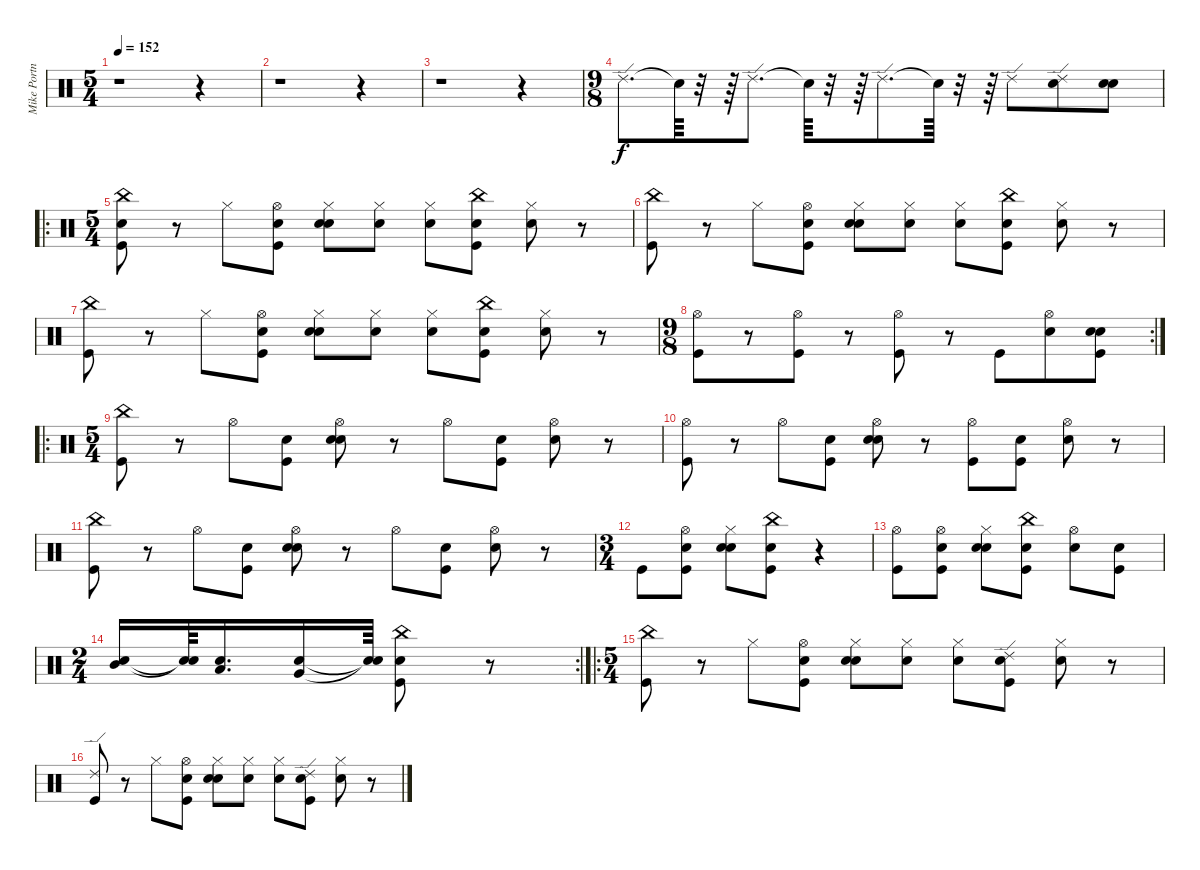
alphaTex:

\track ("Mike Portnoy" "Mike Portn") {instrument percussion}
\staff {score}
\articulation defaults
\ts (5 4)
\tempo 152
\clef neutral
\ks c
r.1{dy f} r.4 |
r.1 r.4 |
r.1 r.4 |
\ts (9 8)
"Ride (edge) 2".8{d} "Snare (hit)"{t}.64 r.32 r.64 "Ride (edge) 2".8{d} "Snare (hit)"{t}.64 r.32 r.64 "Ride (edge) 2".8{d} "Snare (hit)"{t}.64 r.32 r.64 "Ride (edge) 2".8 ("Snare (hit)" "Ride (edge) 2").8 ("Snare (hit)" "Snare (hit) 2").8 |
\ro
\ts (5 4)
("Snare (hit)" "Kick (hit)" "China (hit)").8 r.8 "Hi-Hat (closed)".8 ("Snare (hit)" "Kick (hit)" "Hi-Hat (open)").8 ("Snare (hit)" "Snare (hit) 2" "Hi-Hat (closed)").8 ("Snare (hit)" "Hi-Hat (closed)").8 ("Snare (hit)" "Hi-Hat (closed)").8 ("Snare (hit)" "Kick (hit)" "China (hit)").8 ("Snare (hit)" "Hi-Hat (closed)").8 r.8 |
("Kick (hit)" "China (hit)").8 r.8 "Hi-Hat (closed)".8 ("Snare (hit)" "Kick (hit)" "Hi-Hat (open)").8 ("Snare (hit)" "Snare (hit) 2" "Hi-Hat (closed)").8 ("Snare (hit)" "Hi-Hat (closed)").8 ("Snare (hit)" "Hi-Hat (closed)").8 ("Snare (hit)" "Kick (hit)" "China (hit)").8 ("Snare (hit)" "Hi-Hat (closed)").8 r.8 |
("Kick (hit)" "China (hit)").8 r.8 "Hi-Hat (closed)".8 ("Snare (hit)" "Kick (hit)" "Hi-Hat (open)").8 ("Snare (hit)" "Snare (hit) 2" "Hi-Hat (closed)").8 ("Snare (hit)" "Hi-Hat (closed)").8 ("Snare (hit)" "Hi-Hat (closed)").8 ("Snare (hit)" "Kick (hit)" "China (hit)").8 ("Snare (hit)" "Hi-Hat (closed)").8 r.8 |
\rc 2
\ts (9 8)
("Kick (hit)" "Hi-Hat (open)").8 r.8 ("Kick (hit)" "Hi-Hat (open)").8 r.8 ("Kick (hit)" "Hi-Hat (open)").8 r.8 "Kick (hit)".8 ("Snare (hit)" "Hi-Hat (open)").8 ("Snare (hit)" "Kick (hit)" "Snare (hit) 2").8 |
\ro
\ts (5 4)
("Kick (hit)" "China (hit)").8 r.8 "Hi-Hat (open)".8 ("Snare (hit)" "Kick (hit)").8 ("Snare (hit)" "Snare (hit) 2" "Hi-Hat (open)").8 r.8 "Hi-Hat (open)".8 ("Snare (hit)" "Kick (hit)").8 ("Snare (hit)" "Hi-Hat (open)").8 r.8 |
("Kick (hit)" "Hi-Hat (open)").8 r.8 "Hi-Hat (open)".8 ("Snare (hit)" "Kick (hit)").8 ("Snare (hit)" "Snare (hit) 2" "Hi-Hat (open)").8 r.8 ("Kick (hit)" "Hi-Hat (open)").8 ("Snare (hit)" "Kick (hit)").8 ("Snare (hit)" "Hi-Hat (open)").8 r.8 |
("Kick (hit)" "China (hit)").8 r.8 "Hi-Hat (open)".8 ("Snare (hit)" "Kick (hit)").8 ("Snare (hit)" "Snare (hit) 2" "Hi-Hat (open)").8 r.8 "Hi-Hat (open)".8 ("Snare (hit)" "Kick (hit)").8 ("Snare (hit)" "Hi-Hat (open)").8 r.8 |
\ts (3 4)
"Kick (hit)".8 ("Snare (hit)" "Kick (hit)" "Hi-Hat (open)").8 ("Snare (hit)" "Snare (hit) 2" "Hi-Hat (closed)").8 ("Snare (hit)" "Kick (hit)" "China (hit)").8 r.4 |
("Kick (hit)" "Hi-Hat (open)").8 ("Snare (hit)" "Kick (hit)" "Hi-Hat (open)").8 ("Snare (hit)" "Snare (hit) 2" "Hi-Hat (closed)").8 ("Snare (hit)" "Kick (hit)" "China (hit)").8 ("Snare (hit)" "Hi-Hat (open)").8 ("Snare (hit)" "Kick (hit)").8 |
\rc 2
\ts (2 4)
("Snare (hit)" "Mid Tom (hit)").16 ("Snare (hit)"{t} "Snare (hit)"{t}).64 ("Snare (hit)" "Low Tom (hit)").16{d} ("Snare (hit)" "Very Low Tom (hit)").16 ("Snare (hit)"{t} "Snare (hit)"{t}).64 ("Snare (hit)" "Kick (hit)" "China (hit)").8 r.8 |
\ro
\ts (5 4)
("Kick (hit)" "China (hit)").8 r.8 "Hi-Hat (closed)".8 ("Snare (hit)" "Kick (hit)" "Hi-Hat (open)").8 ("Snare (hit)" "Snare (hit) 2" "Hi-Hat (closed)").8 ("Snare (hit)" "Hi-Hat (closed)").8 ("Snare (hit)" "Hi-Hat (closed)").8 ("Snare (hit)" "Kick (hit)" "Ride (edge) 2").8 ("Snare (hit)" "Hi-Hat (closed)").8 r.8 |
("Kick (hit)" "Ride (edge) 2").8 r.8 "Hi-Hat (closed)".8 ("Snare (hit)" "Kick (hit)" "Hi-Hat (open)").8 ("Snare (hit)" "Snare (hit) 2" "Hi-Hat (closed)").8 ("Snare (hit)" "Hi-Hat (closed)").8 ("Snare (hit)" "Hi-Hat (closed)").8 ("Snare (hit)" "Kick (hit)" "Ride (edge) 2").8 ("Snare (hit)" "Hi-Hat (closed)").8 r.8
